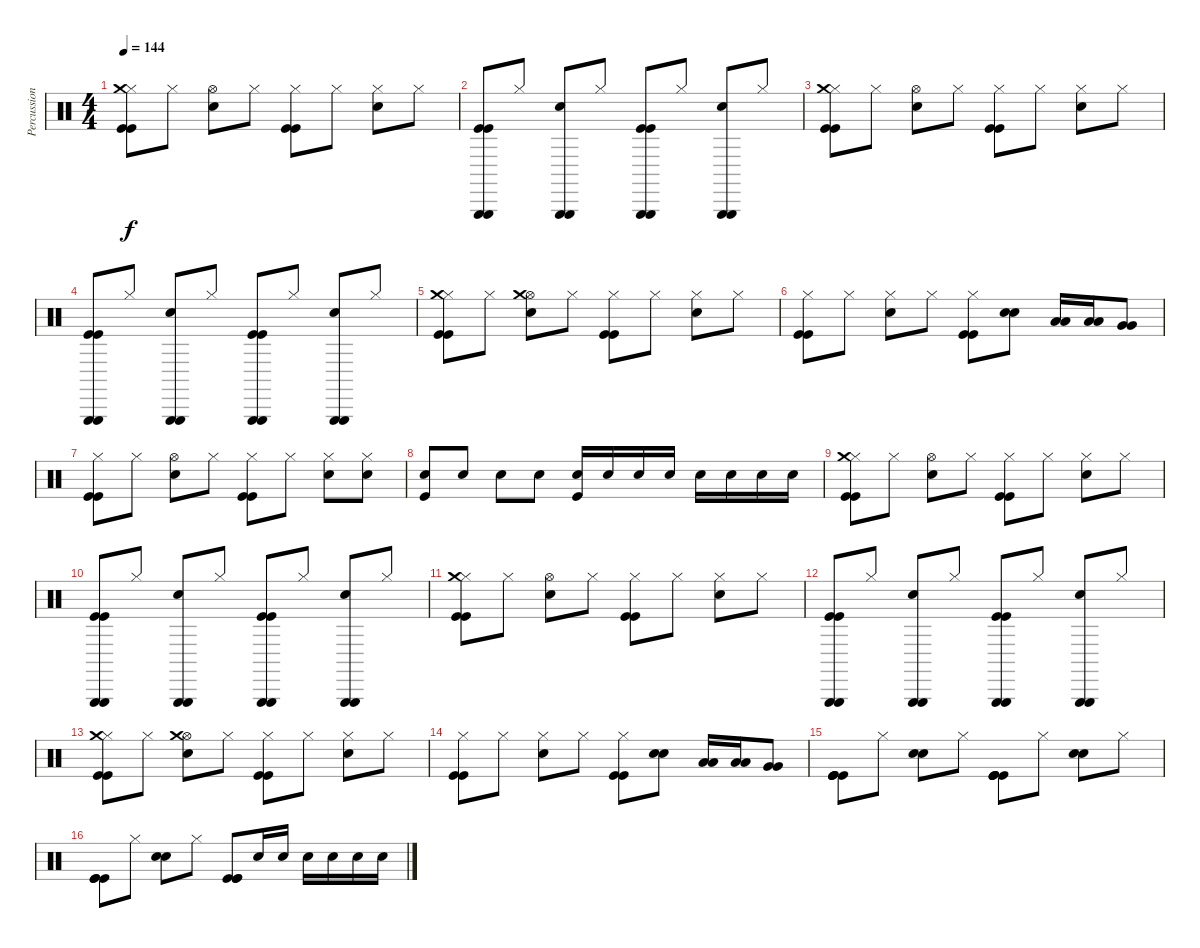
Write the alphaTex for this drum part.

\track ("Percussion" "Percussion") {instrument percussion}
\staff {score}
\articulation defaults
\ts (4 4)
\tempo 144
\clef neutral
\ks c
("Hi-Hat (closed)" "Kick (hit)" "Kick (hit)" "Crash medium (hit)").8{dy f} "Hi-Hat (closed)".8 ("Hi-Hat (open)" "Snare (hit) 2").8 "Hi-Hat (closed)".8 ("Hi-Hat (closed)" "Kick (hit)" "Kick (hit)").8 "Hi-Hat (closed)".8 ("Hi-Hat (closed)" "Snare (hit) 2").8 "Hi-Hat (closed)".8 |
("Triangle (hit)" "Kick (hit)" "Kick (hit)" "Triangle (hit)").8 "Hi-Hat (closed)".8 ("Triangle (hit)" "Snare (hit) 2" "Triangle (hit)").8 "Hi-Hat (closed)".8 ("Triangle (hit)" "Kick (hit)" "Kick (hit)" "Triangle (hit)").8 "Hi-Hat (closed)".8 ("Triangle (hit)" "Snare (hit) 2" "Triangle (hit)").8 "Hi-Hat (closed)".8 |
("Hi-Hat (closed)" "Kick (hit)" "Kick (hit)" "Crash medium (hit)").8 "Hi-Hat (closed)".8 ("Hi-Hat (open)" "Snare (hit) 2").8 "Hi-Hat (closed)".8 ("Hi-Hat (closed)" "Kick (hit)" "Kick (hit)").8 "Hi-Hat (closed)".8 ("Hi-Hat (closed)" "Snare (hit) 2").8 "Hi-Hat (closed)".8 |
("Triangle (hit)" "Kick (hit)" "Kick (hit)" "Triangle (hit)").8 "Hi-Hat (closed)".8 ("Triangle (hit)" "Snare (hit) 2" "Triangle (hit)").8 "Hi-Hat (closed)".8 ("Triangle (hit)" "Kick (hit)" "Kick (hit)" "Triangle (hit)").8 "Hi-Hat (closed)".8 ("Triangle (hit)" "Snare (hit) 2" "Triangle (hit)").8 "Hi-Hat (closed)".8 |
("Hi-Hat (closed)" "Kick (hit)" "Kick (hit)" "Crash medium (hit)").8 "Hi-Hat (closed)".8 ("Hi-Hat (open)" "Snare (hit) 2" "Crash medium (hit)").8 "Hi-Hat (closed)".8 ("Hi-Hat (closed)" "Kick (hit)" "Kick (hit)").8 "Hi-Hat (closed)".8 ("Hi-Hat (closed)" "Snare (hit) 2").8 "Hi-Hat (closed)".8 |
("Hi-Hat (closed)" "Kick (hit)" "Kick (hit)").8 "Hi-Hat (closed)".8 ("Hi-Hat (closed)" "Snare (hit) 2").8 "Hi-Hat (closed)".8 ("Hi-Hat (closed)" "Kick (hit)" "Kick (hit)").8 ("Snare (hit) 2" "Snare (hit) 2").8 ("Low Floor Tom (hit)" "Low Floor Tom (hit)").16 ("Low Floor Tom (hit)" "Low Floor Tom (hit)").16 ("Very Low Tom (hit)" "Very Low Tom (hit)").8 |
("Hi-Hat (closed)" "Kick (hit)" "Kick (hit)").8 "Hi-Hat (closed)".8 ("Hi-Hat (open)" "Snare (hit) 2").8 "Hi-Hat (closed)".8 ("Hi-Hat (closed)" "Kick (hit)" "Kick (hit)").8 "Hi-Hat (closed)".8 ("Hi-Hat (closed)" "Snare (hit) 2").8 ("Hi-Hat (closed)" "Snare (hit) 2").8 |
("Snare (hit) 2" "Kick (hit)").8 "Snare (hit) 2".8 "Snare (hit) 2".8 "Snare (hit) 2".8 ("Snare (hit) 2" "Kick (hit)").16 "Snare (hit) 2".16 "Snare (hit) 2".16 "Snare (hit) 2".16 "Snare (hit) 2".16 "Snare (hit) 2".16 "Snare (hit) 2".16 "Snare (hit) 2".16 |
("Hi-Hat (closed)" "Kick (hit)" "Kick (hit)" "Crash medium (hit)").8 "Hi-Hat (closed)".8 ("Hi-Hat (open)" "Snare (hit) 2").8 "Hi-Hat (closed)".8 ("Hi-Hat (closed)" "Kick (hit)" "Kick (hit)").8 "Hi-Hat (closed)".8 ("Hi-Hat (closed)" "Snare (hit) 2").8 "Hi-Hat (closed)".8 |
("Triangle (hit)" "Kick (hit)" "Kick (hit)" "Triangle (hit)").8 "Hi-Hat (closed)".8 ("Triangle (hit)" "Snare (hit) 2" "Triangle (hit)").8 "Hi-Hat (closed)".8 ("Triangle (hit)" "Kick (hit)" "Kick (hit)" "Triangle (hit)").8 "Hi-Hat (closed)".8 ("Triangle (hit)" "Snare (hit) 2" "Triangle (hit)").8 "Hi-Hat (closed)".8 |
("Hi-Hat (closed)" "Kick (hit)" "Kick (hit)" "Crash medium (hit)").8 "Hi-Hat (closed)".8 ("Hi-Hat (open)" "Snare (hit) 2").8 "Hi-Hat (closed)".8 ("Hi-Hat (closed)" "Kick (hit)" "Kick (hit)").8 "Hi-Hat (closed)".8 ("Hi-Hat (closed)" "Snare (hit) 2").8 "Hi-Hat (closed)".8 |
("Triangle (hit)" "Kick (hit)" "Kick (hit)" "Triangle (hit)").8 "Hi-Hat (closed)".8 ("Triangle (hit)" "Snare (hit) 2" "Triangle (hit)").8 "Hi-Hat (closed)".8 ("Triangle (hit)" "Kick (hit)" "Kick (hit)" "Triangle (hit)").8 "Hi-Hat (closed)".8 ("Triangle (hit)" "Snare (hit) 2" "Triangle (hit)").8 "Hi-Hat (closed)".8 |
("Hi-Hat (closed)" "Kick (hit)" "Kick (hit)" "Crash medium (hit)").8 "Hi-Hat (closed)".8 ("Hi-Hat (open)" "Snare (hit) 2" "Crash medium (hit)").8 "Hi-Hat (closed)".8 ("Hi-Hat (closed)" "Kick (hit)" "Kick (hit)").8 "Hi-Hat (closed)".8 ("Hi-Hat (closed)" "Snare (hit) 2").8 "Hi-Hat (closed)".8 |
("Hi-Hat (closed)" "Kick (hit)" "Kick (hit)").8 "Hi-Hat (closed)".8 ("Hi-Hat (closed)" "Snare (hit) 2").8 "Hi-Hat (closed)".8 ("Hi-Hat (closed)" "Kick (hit)" "Kick (hit)").8 ("Snare (hit) 2" "Snare (hit) 2").8 ("Low Floor Tom (hit)" "Low Floor Tom (hit)").16 ("Low Floor Tom (hit)" "Low Floor Tom (hit)").16 ("Very Low Tom (hit)" "Very Low Tom (hit)").8 |
("Kick (hit)" "Kick (hit)" "Kick (hit)" "Kick (hit)").8 "Hi-Hat (closed)".8 ("Snare (hit) 2" "Snare (hit) 2").8 "Hi-Hat (closed)".8 ("Kick (hit)" "Kick (hit)" "Kick (hit)" "Kick (hit)").8 "Hi-Hat (closed)".8 ("Snare (hit) 2" "Snare (hit) 2").8 "Hi-Hat (closed)".8 |
("Kick (hit)" "Kick (hit)" "Kick (hit)").8 "Hi-Hat (closed)".8 ("Snare (hit) 2" "Snare (hit) 2").8 "Hi-Hat (closed)".8 ("Kick (hit)" "Kick (hit)" "Kick (hit)").8 "Snare (hit) 2".16 "Snare (hit) 2".16 "Snare (hit) 2".16 "Snare (hit) 2".16 "Snare (hit) 2".16 "Snare (hit) 2".16
